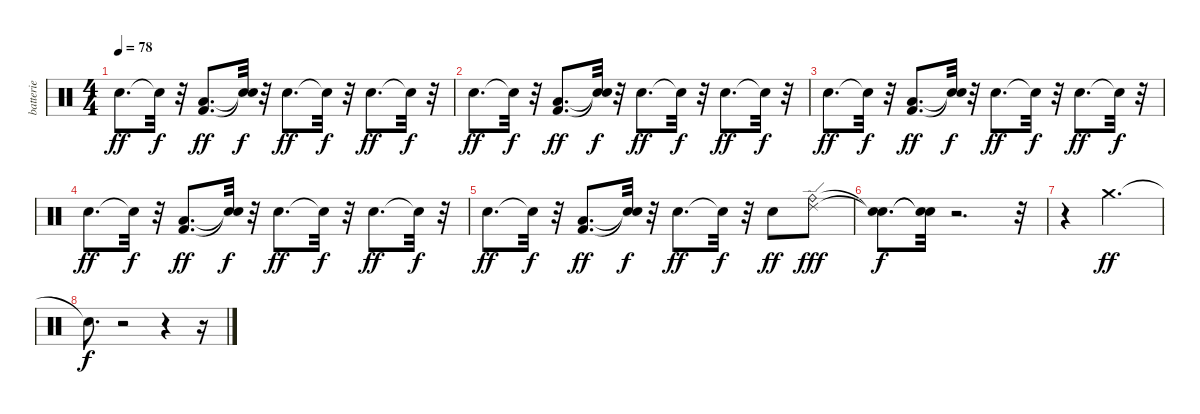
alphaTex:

\track ("batterie" "batterie") {instrument percussion}
\staff {score}
\articulation defaults
\ts (4 4)
\tempo 78
\clef neutral
\ks c "Hand Clap (hit)".8{d dy ff} "Snare (hit)"{t}.32{dy f}
r.32 ("Kick (hit) 2" "Low Floor Tom (hit)").8{d dy ff} ("Snare (hit)"{t} "Snare (hit)"{t}).32{dy f} r.32 "Hand Clap (hit)".8{d dy ff} "Snare (hit)"{t}.32{dy f} r.32 "Hand Clap (hit)".8{d dy ff} "Snare (hit)"{t}.32{dy f} r.32 |
"Hand Clap (hit)".8{d dy ff} "Snare (hit)"{t}.32{dy f} r.32 ("Kick (hit) 2" "Low Floor Tom (hit)").8{d dy ff} ("Snare (hit)"{t} "Snare (hit)"{t}).32{dy f} r.32 "Hand Clap (hit)".8{d dy ff} "Snare (hit)"{t}.32{dy f} r.32 "Hand Clap (hit)".8{d dy ff} "Snare (hit)"{t}.32{dy f} r.32 |
"Hand Clap (hit)".8{d dy ff} "Snare (hit)"{t}.32{dy f} r.32 ("Kick (hit) 2" "Low Floor Tom (hit)").8{d dy ff} ("Snare (hit)"{t} "Snare (hit)"{t}).32{dy f} r.32 "Hand Clap (hit)".8{d dy ff} "Snare (hit)"{t}.32{dy f} r.32 "Hand Clap (hit)".8{d dy ff} "Snare (hit)"{t}.32{dy f} r.32 |
"Hand Clap (hit)".8{d dy ff} "Snare (hit)"{t}.32{dy f} r.32 ("Kick (hit) 2" "Low Floor Tom (hit)").8{d dy ff} ("Snare (hit)"{t} "Snare (hit)"{t}).32{dy f} r.32 "Hand Clap (hit)".8{d dy ff} "Snare (hit)"{t}.32{dy f} r.32 "Hand Clap (hit)".8{d dy ff} "Snare (hit)"{t}.32{dy f} r.32 |
"Hand Clap (hit)".8{d dy ff} "Snare (hit)"{t}.32{dy f} r.32 ("Kick (hit) 2" "Low Floor Tom (hit)").8{d dy ff} ("Snare (hit)"{t} "Snare (hit)"{t}).32{dy f} r.32 "Hand Clap (hit)".8{d dy ff} "Snare (hit)"{t}.32{dy f} r.32 "Hand Clap (hit)".8{dy ff} ("Ride (bell)" "Ride (edge) 2").8{dy fff} |
("Snare (hit)"{t} "Snare (hit)"{t}).8{d dy f} ("Snare (hit)"{t} "Snare (hit)"{t}).32 r.2{d} r.32 |
r.4 "Crash medium (hit)".2{d dy ff} |
"Snare (hit)"{t}.8{d dy f} r.2 r.4 r.16
